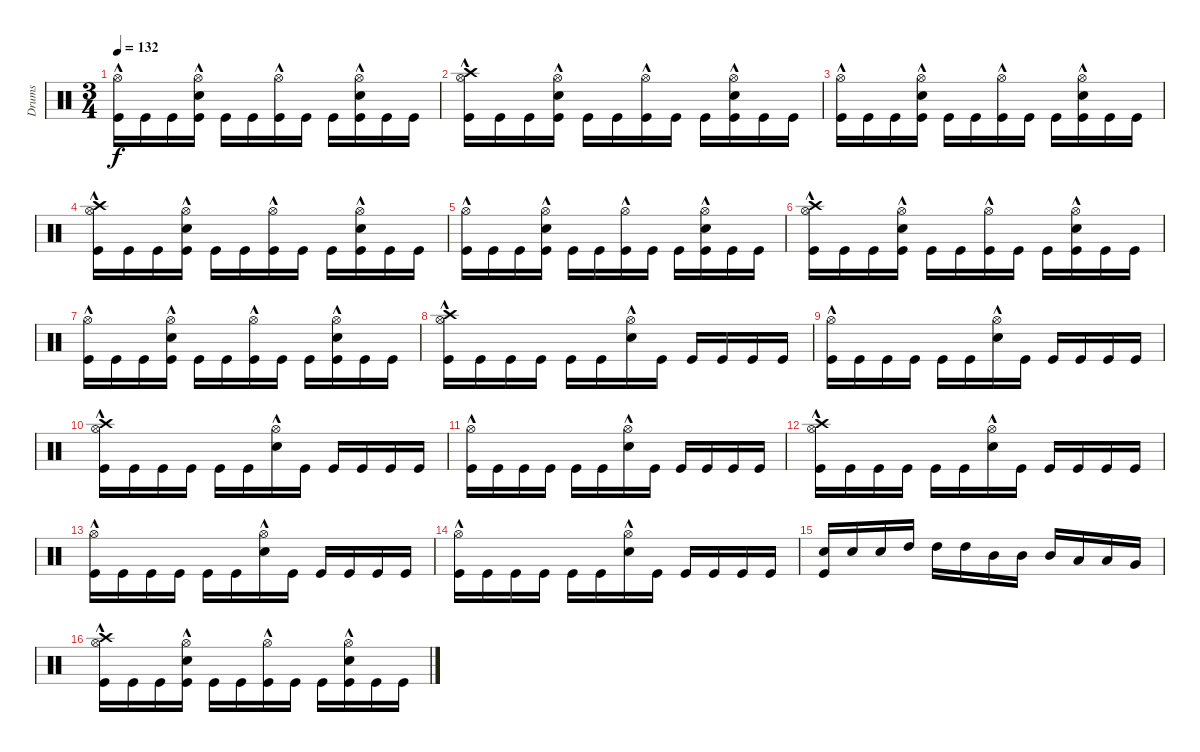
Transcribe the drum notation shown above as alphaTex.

\track ("Drums" "Drums") {instrument percussion}
\staff {score}
\articulation defaults
\ts (3 4)
\tempo 132
\clef neutral
\ks c
("Hi-Hat (open)"{hac} "Kick (hit)").16{dy f} "Kick (hit)".16 "Kick (hit)".16 ("Hi-Hat (open)"{hac} "Kick (hit)" "Electric Snare (hit)").16 "Kick (hit)".16 "Kick (hit)".16 ("Hi-Hat (open)"{hac} "Kick (hit)").16 "Kick (hit)".16 "Kick (hit)".16 ("Hi-Hat (open)"{hac} "Kick (hit)" "Electric Snare (hit)").16 "Kick (hit)".16 "Kick (hit)".16 |
("Crash high (hit)" "Hi-Hat (open)"{hac} "Kick (hit)").16 "Kick (hit)".16 "Kick (hit)".16 ("Hi-Hat (open)"{hac} "Kick (hit)" "Electric Snare (hit)").16 "Kick (hit)".16 "Kick (hit)".16 ("Hi-Hat (open)"{hac} "Kick (hit)").16 "Kick (hit)".16 "Kick (hit)".16 ("Hi-Hat (open)"{hac} "Kick (hit)" "Electric Snare (hit)").16 "Kick (hit)".16 "Kick (hit)".16 |
("Hi-Hat (open)"{hac} "Kick (hit)").16 "Kick (hit)".16 "Kick (hit)".16 ("Hi-Hat (open)"{hac} "Kick (hit)" "Electric Snare (hit)").16 "Kick (hit)".16 "Kick (hit)".16 ("Hi-Hat (open)"{hac} "Kick (hit)").16 "Kick (hit)".16 "Kick (hit)".16 ("Hi-Hat (open)"{hac} "Kick (hit)" "Electric Snare (hit)").16 "Kick (hit)".16 "Kick (hit)".16 |
("Crash high (hit)" "Hi-Hat (open)"{hac} "Kick (hit)").16 "Kick (hit)".16 "Kick (hit)".16 ("Hi-Hat (open)"{hac} "Kick (hit)" "Electric Snare (hit)").16 "Kick (hit)".16 "Kick (hit)".16 ("Hi-Hat (open)"{hac} "Kick (hit)").16 "Kick (hit)".16 "Kick (hit)".16 ("Hi-Hat (open)"{hac} "Kick (hit)" "Electric Snare (hit)").16 "Kick (hit)".16 "Kick (hit)".16 |
("Hi-Hat (open)"{hac} "Kick (hit)").16 "Kick (hit)".16 "Kick (hit)".16 ("Hi-Hat (open)"{hac} "Kick (hit)" "Electric Snare (hit)").16 "Kick (hit)".16 "Kick (hit)".16 ("Hi-Hat (open)"{hac} "Kick (hit)").16 "Kick (hit)".16 "Kick (hit)".16 ("Hi-Hat (open)"{hac} "Kick (hit)" "Electric Snare (hit)").16 "Kick (hit)".16 "Kick (hit)".16 |
("Crash high (hit)" "Hi-Hat (open)"{hac} "Kick (hit)").16 "Kick (hit)".16 "Kick (hit)".16 ("Hi-Hat (open)"{hac} "Kick (hit)" "Electric Snare (hit)").16 "Kick (hit)".16 "Kick (hit)".16 ("Hi-Hat (open)"{hac} "Kick (hit)").16 "Kick (hit)".16 "Kick (hit)".16 ("Hi-Hat (open)"{hac} "Kick (hit)" "Electric Snare (hit)").16 "Kick (hit)".16 "Kick (hit)".16 |
("Hi-Hat (open)"{hac} "Kick (hit)").16 "Kick (hit)".16 "Kick (hit)".16 ("Hi-Hat (open)"{hac} "Kick (hit)" "Electric Snare (hit)").16 "Kick (hit)".16 "Kick (hit)".16 ("Hi-Hat (open)"{hac} "Kick (hit)").16 "Kick (hit)".16 "Kick (hit)".16 ("Hi-Hat (open)"{hac} "Kick (hit)" "Electric Snare (hit)").16 "Kick (hit)".16 "Kick (hit)".16 |
("Crash high (hit)" "Hi-Hat (open)"{hac} "Kick (hit)").16 "Kick (hit)".16 "Kick (hit)".16 "Kick (hit)".16 "Kick (hit)".16 "Kick (hit)".16 ("Hi-Hat (open)"{hac} "Electric Snare (hit)").16 "Kick (hit)".16 "Kick (hit)".16 "Kick (hit)".16 "Kick (hit)".16 "Kick (hit)".16 |
("Hi-Hat (open)"{hac} "Kick (hit)").16 "Kick (hit)".16 "Kick (hit)".16 "Kick (hit)".16 "Kick (hit)".16 "Kick (hit)".16 ("Hi-Hat (open)"{hac} "Electric Snare (hit)").16 "Kick (hit)".16 "Kick (hit)".16 "Kick (hit)".16 "Kick (hit)".16 "Kick (hit)".16 |
("Crash high (hit)" "Hi-Hat (open)"{hac} "Kick (hit)").16 "Kick (hit)".16 "Kick (hit)".16 "Kick (hit)".16 "Kick (hit)".16 "Kick (hit)".16 ("Hi-Hat (open)"{hac} "Electric Snare (hit)").16 "Kick (hit)".16 "Kick (hit)".16 "Kick (hit)".16 "Kick (hit)".16 "Kick (hit)".16 |
("Hi-Hat (open)"{hac} "Kick (hit)").16 "Kick (hit)".16 "Kick (hit)".16 "Kick (hit)".16 "Kick (hit)".16 "Kick (hit)".16 ("Hi-Hat (open)"{hac} "Electric Snare (hit)").16 "Kick (hit)".16 "Kick (hit)".16 "Kick (hit)".16 "Kick (hit)".16 "Kick (hit)".16 |
("Crash high (hit)" "Hi-Hat (open)"{hac} "Kick (hit)").16 "Kick (hit)".16 "Kick (hit)".16 "Kick (hit)".16 "Kick (hit)".16 "Kick (hit)".16 ("Hi-Hat (open)"{hac} "Electric Snare (hit)").16 "Kick (hit)".16 "Kick (hit)".16 "Kick (hit)".16 "Kick (hit)".16 "Kick (hit)".16 |
("Hi-Hat (open)"{hac} "Kick (hit)").16 "Kick (hit)".16 "Kick (hit)".16 "Kick (hit)".16 "Kick (hit)".16 "Kick (hit)".16 ("Hi-Hat (open)"{hac} "Electric Snare (hit)").16 "Kick (hit)".16 "Kick (hit)".16 "Kick (hit)".16 "Kick (hit)".16 "Kick (hit)".16 |
("Hi-Hat (open)"{hac} "Kick (hit)").16 "Kick (hit)".16 "Kick (hit)".16 "Kick (hit)".16 "Kick (hit)".16 "Kick (hit)".16 ("Hi-Hat (open)"{hac} "Electric Snare (hit)").16 "Kick (hit)".16 "Kick (hit)".16 "Kick (hit)".16 "Kick (hit)".16 "Kick (hit)".16 |
("Snare (hit) 2" "Kick (hit)").16 "Snare (hit) 2".16 "Snare (hit) 2".16 "High Tom (hit)".16 "High Tom (hit)".16 "High Tom (hit)".16 "Mid Tom (hit)".16 "Mid Tom (hit)".16 "Mid Tom (hit)".16 "Low Tom (hit)".16 "Low Tom (hit)".16 "Very Low Tom (hit)".16 |
("Crash high (hit)" "Hi-Hat (open)"{hac} "Kick (hit)").16 "Kick (hit)".16 "Kick (hit)".16 ("Hi-Hat (open)"{hac} "Kick (hit)" "Electric Snare (hit)").16 "Kick (hit)".16 "Kick (hit)".16 ("Hi-Hat (open)"{hac} "Kick (hit)").16 "Kick (hit)".16 "Kick (hit)".16 ("Hi-Hat (open)"{hac} "Kick (hit)" "Electric Snare (hit)").16 "Kick (hit)".16 "Kick (hit)".16
